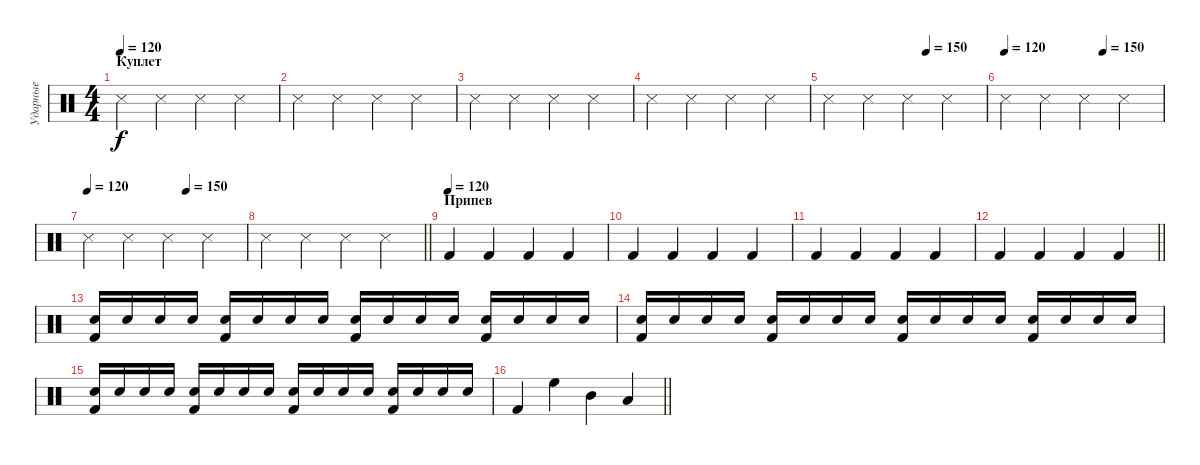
\track ("Ударные" "Ударные") {instrument percussion}
\staff {score}
\articulation defaults
\ts (4 4)
\section ("" "Куплет")
\tempo 120
\clef neutral
\ks c "Snare (side stick) 3".4{dy f} "Snare (side stick) 3".4 "Snare (side stick) 3".4 "Snare (side stick) 3".4
|
"Snare (side stick) 3".4 "Snare (side stick) 3".4 "Snare (side stick) 3".4 "Snare (side stick) 3".4 |
"Snare (side stick) 3".4 "Snare (side stick) 3".4 "Snare (side stick) 3".4 "Snare (side stick) 3".4 |
"Snare (side stick) 3".4 "Snare (side stick) 3".4 "Snare (side stick) 3".4 "Snare (side stick) 3".4 |
\tempo (150 0.625)
"Snare (side stick) 3".4 "Snare (side stick) 3".4 "Snare (side stick) 3".4 "Snare (side stick) 3".4 |
\tempo 120
\tempo (150 0.625)
"Snare (side stick) 3".4 "Snare (side stick) 3".4 "Snare (side stick) 3".4 "Snare (side stick) 3".4 |
\tempo 120
\tempo (150 0.625)
"Snare (side stick) 3".4 "Snare (side stick) 3".4 "Snare (side stick) 3".4 "Snare (side stick) 3".4 |
\barLineRight lightlight "Snare (side stick) 3".4 "Snare (side stick) 3".4 "Snare (side stick) 3".4 "Snare (side stick) 3".4
|
\section ("" "Припев")
\tempo (120)
"Kick (hit) 2".4 "Kick (hit) 2".4 "Kick (hit) 2".4 "Kick (hit) 2".4 |
"Kick (hit) 2".4 "Kick (hit) 2".4 "Kick (hit) 2".4 "Kick (hit) 2".4 |
"Kick (hit) 2".4 "Kick (hit) 2".4 "Kick (hit) 2".4 "Kick (hit) 2".4 |
\barLineRight lightlight "Kick (hit) 2".4 "Kick (hit) 2".4 "Kick (hit) 2".4 "Kick (hit) 2".4
|
\section ("" "")
("Kick (hit) 2" "Snare (hit) 2").16{volume 8} "Electric Snare (hit)".16 "Snare (hit) 2".16 "Electric Snare (hit)".16 ("Kick (hit) 2" "Snare (hit) 2").16 "Electric Snare (hit)".16 "Snare (hit) 2".16 "Electric Snare (hit)".16 ("Kick (hit) 2" "Snare (hit) 2").16{volume 9} "Electric Snare (hit)".16 "Snare (hit) 2".16 "Electric Snare (hit)".16 ("Kick (hit) 2" "Snare (hit) 2").16 "Electric Snare (hit)".16 "Snare (hit) 2".16 "Electric Snare (hit)".16 |
("Kick (hit) 2" "Snare (hit) 2").16{volume 10} "Electric Snare (hit)".16 "Snare (hit) 2".16 "Electric Snare (hit)".16 ("Kick (hit) 2" "Snare (hit) 2").16 "Electric Snare (hit)".16 "Snare (hit) 2".16 "Electric Snare (hit)".16 ("Kick (hit) 2" "Snare (hit) 2").16{volume 11} "Electric Snare (hit)".16 "Snare (hit) 2".16 "Electric Snare (hit)".16 ("Kick (hit) 2" "Snare (hit) 2").16 "Electric Snare (hit)".16 "Snare (hit) 2".16 "Electric Snare (hit)".16 |
("Kick (hit) 2" "Snare (hit) 2").16{volume 12} "Electric Snare (hit)".16 "Snare (hit) 2".16 "Electric Snare (hit)".16 ("Kick (hit) 2" "Snare (hit) 2").16 "Electric Snare (hit)".16 "Snare (hit) 2".16 "Electric Snare (hit)".16 ("Kick (hit) 2" "Snare (hit) 2").16{volume 13} "Electric Snare (hit)".16 "Snare (hit) 2".16 "Electric Snare (hit)".16 ("Kick (hit) 2" "Snare (hit) 2").16 "Electric Snare (hit)".16 "Snare (hit) 2".16 "Electric Snare (hit)".16 |
\barLineRight lightlight "Kick (hit) 2".4 "High Floor Tom (hit)".4 "Mid Tom (hit)".4 "Low Tom (hit)".4
